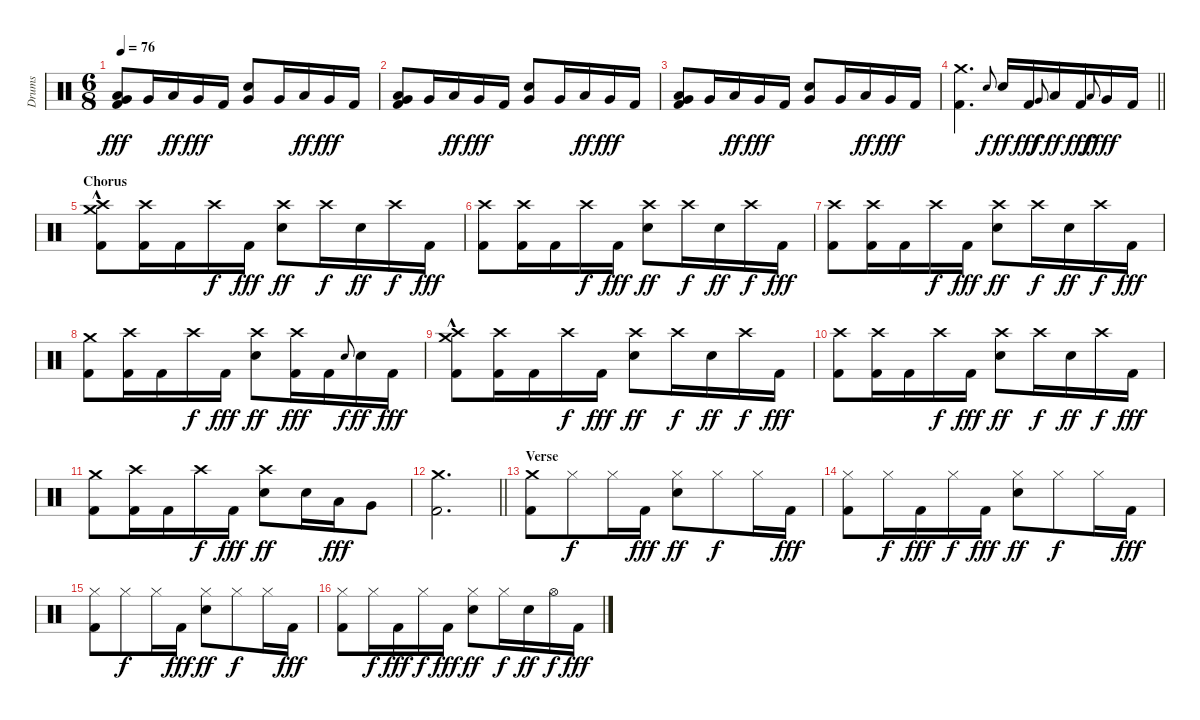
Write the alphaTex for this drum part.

\track ("Drums" "Drums") {instrument percussion}
\staff {score}
\articulation defaults
\ts (6 8)
\tempo 76
\clef neutral
\ks c
("Low Tom (hit)" "Very Low Tom (hit)" "Kick (hit) 2").8{dy fff} "Very Low Tom (hit)".16 "Low Tom (hit)".16{dy ff} "Very Low Tom (hit)".16{dy fff} "Kick (hit) 2".16 ("Snare (hit) 2" "Very Low Tom (hit)").8 "Very Low Tom (hit)".16 "Low Tom (hit)".16{dy ff} "Very Low Tom (hit)".16{dy fff} "Kick (hit) 2".16 |
("Low Tom (hit)" "Very Low Tom (hit)" "Kick (hit) 2").8 "Very Low Tom (hit)".16 "Low Tom (hit)".16{dy ff} "Very Low Tom (hit)".16{dy fff} "Kick (hit) 2".16 ("Snare (hit) 2" "Very Low Tom (hit)").8 "Very Low Tom (hit)".16 "Low Tom (hit)".16{dy ff} "Very Low Tom (hit)".16{dy fff} "Kick (hit) 2".16 |
("Low Tom (hit)" "Very Low Tom (hit)" "Kick (hit) 2").8 "Very Low Tom (hit)".16 "Low Tom (hit)".16{dy ff} "Very Low Tom (hit)".16{dy fff} "Kick (hit) 2".16 ("Snare (hit) 2" "Very Low Tom (hit)").8 "Very Low Tom (hit)".16 "Low Tom (hit)".16{dy ff} "Very Low Tom (hit)".16{dy fff} "Kick (hit) 2".16 |
\barLineRight lightlight
("Crash medium (hit)" "Kick (hit) 2").4{d} "Snare (hit) 2".8{gr onbeat dy f} "Snare (hit) 2".16{dy ff} "Kick (hit) 2".16{dy fff} "Very Low Tom (hit)".8{gr onbeat dy f} "Low Tom (hit)".16{dy ff} "Kick (hit) 2".16{dy fff} "Low Floor Tom (hit)".8{gr onbeat dy f} "Very Low Tom (hit)".16{dy fff} "Kick (hit) 2".16 |
\section ("" "Chorus")
("Crash medium (hit)"{hac} "Crash high (hit)"{hac} "Kick (hit) 2"{hac}).8 ("Crash high (hit)" "Kick (hit) 2").16 "Kick (hit) 2".16 "Crash high (hit)".16{dy f} "Kick (hit) 2".16{dy fff} ("Crash high (hit)" "Snare (hit) 2").8{dy ff} "Crash high (hit)".16{dy f} "Snare (hit) 2".16{dy ff} "Crash high (hit)".16{dy f} "Kick (hit) 2".16{dy fff} |
("Crash high (hit)" "Kick (hit) 2").8 ("Crash high (hit)" "Kick (hit) 2").16 "Kick (hit) 2".16 "Crash high (hit)".16{dy f} "Kick (hit) 2".16{dy fff} ("Crash high (hit)" "Snare (hit) 2").8{dy ff} "Crash high (hit)".16{dy f} "Snare (hit) 2".16{dy ff} "Crash high (hit)".16{dy f} "Kick (hit) 2".16{dy fff} |
("Crash high (hit)" "Kick (hit) 2").8 ("Crash high (hit)" "Kick (hit) 2").16 "Kick (hit) 2".16 "Crash high (hit)".16{dy f} "Kick (hit) 2".16{dy fff} ("Crash high (hit)" "Snare (hit) 2").8{dy ff} "Crash high (hit)".16{dy f} "Snare (hit) 2".16{dy ff} "Crash high (hit)".16{dy f} "Kick (hit) 2".16{dy fff} |
("Crash medium (hit)" "Kick (hit) 2").8 ("Crash high (hit)" "Kick (hit) 2").16 "Kick (hit) 2".16 "Crash high (hit)".16{dy f} "Kick (hit) 2".16{dy fff} ("Crash high (hit)" "Snare (hit) 2").8{dy ff} ("Crash high (hit)" "Kick (hit) 2").16{dy fff} "Kick (hit) 2".16 "Snare (hit) 2".8{gr onbeat dy f} "Snare (hit) 2".16{dy ff} "Kick (hit) 2".16{dy fff} |
("Crash medium (hit)"{hac} "Crash high (hit)"{hac} "Kick (hit) 2"{hac}).8 ("Crash high (hit)" "Kick (hit) 2").16 "Kick (hit) 2".16 "Crash high (hit)".16{dy f} "Kick (hit) 2".16{dy fff} ("Crash high (hit)" "Snare (hit) 2").8{dy ff} "Crash high (hit)".16{dy f} "Snare (hit) 2".16{dy ff} "Crash high (hit)".16{dy f} "Kick (hit) 2".16{dy fff} |
("Crash high (hit)" "Kick (hit) 2").8 ("Crash high (hit)" "Kick (hit) 2").16 "Kick (hit) 2".16 "Crash high (hit)".16{dy f} "Kick (hit) 2".16{dy fff} ("Crash high (hit)" "Snare (hit) 2").8{dy ff} "Crash high (hit)".16{dy f} "Snare (hit) 2".16{dy ff} "Crash high (hit)".16{dy f} "Kick (hit) 2".16{dy fff} |
("Crash medium (hit)" "Kick (hit) 2").8 ("Crash high (hit)" "Kick (hit) 2").16 "Kick (hit) 2".16 "Crash high (hit)".16{dy f} "Kick (hit) 2".16{dy fff} ("Crash high (hit)" "Snare (hit) 2").8{dy ff} "Snare (hit) 2".16 "Low Tom (hit)".16{dy fff} "Very Low Tom (hit)".8 |
\barLineRight lightlight
("Crash medium (hit)" "Kick (hit) 2").2{d} |
\section ("" "Verse")
("Crash medium (hit)" "Kick (hit) 2").8 "Hi-Hat (closed)".8{dy f} "Hi-Hat (closed)".16 "Kick (hit) 2".16{dy fff} ("Hi-Hat (closed)" "Snare (hit) 2").8{dy ff} "Hi-Hat (closed)".8{dy f} "Hi-Hat (closed)".16 "Kick (hit) 2".16{dy fff} |
("Hi-Hat (closed)" "Kick (hit) 2").8 "Hi-Hat (closed)".16{dy f} "Kick (hit) 2".16{dy fff} "Hi-Hat (closed)".16{dy f} "Kick (hit) 2".16{dy fff} ("Hi-Hat (closed)" "Snare (hit) 2").8{dy ff} "Hi-Hat (closed)".8{dy f} "Hi-Hat (closed)".16 "Kick (hit) 2".16{dy fff} |
("Hi-Hat (closed)" "Kick (hit) 2").8 "Hi-Hat (closed)".8{dy f} "Hi-Hat (closed)".16 "Kick (hit) 2".16{dy fff} ("Hi-Hat (closed)" "Snare (hit) 2").8{dy ff} "Hi-Hat (closed)".8{dy f} "Hi-Hat (closed)".16 "Kick (hit) 2".16{dy fff} |
("Hi-Hat (closed)" "Kick (hit) 2").8 "Hi-Hat (closed)".16{dy f} "Kick (hit) 2".16{dy fff} "Hi-Hat (closed)".16{dy f} "Kick (hit) 2".16{dy fff} ("Hi-Hat (closed)" "Snare (hit) 2").8{dy ff} "Hi-Hat (closed)".16{dy f} "Snare (hit) 2".16{dy ff} "Hi-Hat (open)".16{dy f} "Kick (hit) 2".16{dy fff}
